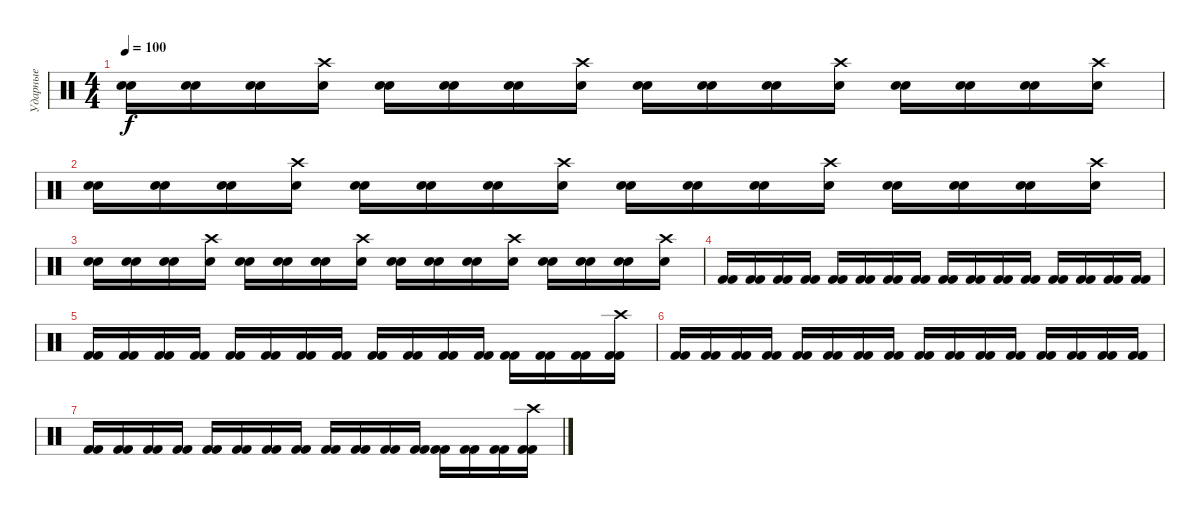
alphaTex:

\track ("Ударные" "Ударные") {instrument percussion}
\staff {score}
\articulation defaults
\ts (4 4)
\tempo 100
\clef neutral
\ks c
("Electric Snare (hit)" "Electric Snare (hit)").16{dy f} ("Electric Snare (hit)" "Electric Snare (hit)").16 ("Electric Snare (hit)" "Electric Snare (hit)").16 ("Electric Snare (hit)" "Crash high (hit)").16 ("Electric Snare (hit)" "Electric Snare (hit)").16 ("Electric Snare (hit)" "Electric Snare (hit)").16 ("Electric Snare (hit)" "Electric Snare (hit)").16 ("Electric Snare (hit)" "Crash high (hit)").16 ("Electric Snare (hit)" "Electric Snare (hit)").16 ("Electric Snare (hit)" "Electric Snare (hit)").16 ("Electric Snare (hit)" "Electric Snare (hit)").16 ("Electric Snare (hit)" "Crash high (hit)").16 ("Electric Snare (hit)" "Electric Snare (hit)").16 ("Electric Snare (hit)" "Electric Snare (hit)").16 ("Electric Snare (hit)" "Electric Snare (hit)").16 ("Electric Snare (hit)" "Crash high (hit)").16 |
("Electric Snare (hit)" "Electric Snare (hit)").16 ("Electric Snare (hit)" "Electric Snare (hit)").16 ("Electric Snare (hit)" "Electric Snare (hit)").16 ("Electric Snare (hit)" "Crash high (hit)").16 ("Electric Snare (hit)" "Electric Snare (hit)").16 ("Electric Snare (hit)" "Electric Snare (hit)").16 ("Electric Snare (hit)" "Electric Snare (hit)").16 ("Electric Snare (hit)" "Crash high (hit)").16 ("Electric Snare (hit)" "Electric Snare (hit)").16 ("Electric Snare (hit)" "Electric Snare (hit)").16 ("Electric Snare (hit)" "Electric Snare (hit)").16 ("Electric Snare (hit)" "Crash high (hit)").16 ("Electric Snare (hit)" "Electric Snare (hit)").16 ("Electric Snare (hit)" "Electric Snare (hit)").16 ("Electric Snare (hit)" "Electric Snare (hit)").16 ("Electric Snare (hit)" "Crash high (hit)").16 |
("Electric Snare (hit)" "Electric Snare (hit)").16 ("Electric Snare (hit)" "Electric Snare (hit)").16 ("Electric Snare (hit)" "Electric Snare (hit)").16 ("Electric Snare (hit)" "Crash high (hit)").16 ("Electric Snare (hit)" "Electric Snare (hit)").16 ("Electric Snare (hit)" "Electric Snare (hit)").16 ("Electric Snare (hit)" "Electric Snare (hit)").16 ("Electric Snare (hit)" "Crash high (hit)").16 ("Electric Snare (hit)" "Electric Snare (hit)").16 ("Electric Snare (hit)" "Electric Snare (hit)").16 ("Electric Snare (hit)" "Electric Snare (hit)").16 ("Electric Snare (hit)" "Crash high (hit)").16 ("Electric Snare (hit)" "Electric Snare (hit)").16 ("Electric Snare (hit)" "Electric Snare (hit)").16 ("Electric Snare (hit)" "Electric Snare (hit)").16 ("Electric Snare (hit)" "Crash high (hit)").16 |
("Kick (hit) 2" "Kick (hit) 2").16 ("Kick (hit) 2" "Kick (hit) 2").16 ("Kick (hit) 2" "Kick (hit) 2").16 ("Kick (hit) 2" "Kick (hit) 2").16 ("Kick (hit) 2" "Kick (hit) 2").16 ("Kick (hit) 2" "Kick (hit) 2").16 ("Kick (hit) 2" "Kick (hit) 2").16 ("Kick (hit) 2" "Kick (hit) 2").16 ("Kick (hit) 2" "Kick (hit) 2").16 ("Kick (hit) 2" "Kick (hit) 2").16 ("Kick (hit) 2" "Kick (hit) 2").16 ("Kick (hit) 2" "Kick (hit) 2").16 ("Kick (hit) 2" "Kick (hit) 2").16 ("Kick (hit) 2" "Kick (hit) 2").16 ("Kick (hit) 2" "Kick (hit) 2").16 ("Kick (hit) 2" "Kick (hit) 2").16 |
("Kick (hit) 2" "Kick (hit) 2").16 ("Kick (hit) 2" "Kick (hit) 2").16 ("Kick (hit) 2" "Kick (hit) 2").16 ("Kick (hit) 2" "Kick (hit) 2").16 ("Kick (hit) 2" "Kick (hit) 2").16 ("Kick (hit) 2" "Kick (hit) 2").16 ("Kick (hit) 2" "Kick (hit) 2").16 ("Kick (hit) 2" "Kick (hit) 2").16 ("Kick (hit) 2" "Kick (hit) 2").16 ("Kick (hit) 2" "Kick (hit) 2").16 ("Kick (hit) 2" "Kick (hit) 2").16 ("Kick (hit) 2" "Kick (hit) 2").16 ("Kick (hit) 2" "Kick (hit) 2").16 ("Kick (hit) 2" "Kick (hit) 2").16 ("Kick (hit) 2" "Kick (hit) 2").16 ("Kick (hit) 2" "Kick (hit) 2" "Crash high (hit)").16 |
("Kick (hit) 2" "Kick (hit) 2").16 ("Kick (hit) 2" "Kick (hit) 2").16 ("Kick (hit) 2" "Kick (hit) 2").16 ("Kick (hit) 2" "Kick (hit) 2").16 ("Kick (hit) 2" "Kick (hit) 2").16 ("Kick (hit) 2" "Kick (hit) 2").16 ("Kick (hit) 2" "Kick (hit) 2").16 ("Kick (hit) 2" "Kick (hit) 2").16 ("Kick (hit) 2" "Kick (hit) 2").16 ("Kick (hit) 2" "Kick (hit) 2").16 ("Kick (hit) 2" "Kick (hit) 2").16 ("Kick (hit) 2" "Kick (hit) 2").16 ("Kick (hit) 2" "Kick (hit) 2").16 ("Kick (hit) 2" "Kick (hit) 2").16 ("Kick (hit) 2" "Kick (hit) 2").16 ("Kick (hit) 2" "Kick (hit) 2").16 |
("Kick (hit) 2" "Kick (hit) 2").16 ("Kick (hit) 2" "Kick (hit) 2").16 ("Kick (hit) 2" "Kick (hit) 2").16 ("Kick (hit) 2" "Kick (hit) 2").16 ("Kick (hit) 2" "Kick (hit) 2").16 ("Kick (hit) 2" "Kick (hit) 2").16 ("Kick (hit) 2" "Kick (hit) 2").16 ("Kick (hit) 2" "Kick (hit) 2").16 ("Kick (hit) 2" "Kick (hit) 2").16 ("Kick (hit) 2" "Kick (hit) 2").16 ("Kick (hit) 2" "Kick (hit) 2").16 ("Kick (hit) 2" "Kick (hit) 2").16 ("Kick (hit) 2" "Kick (hit) 2").16 ("Kick (hit) 2" "Kick (hit) 2").16 ("Kick (hit) 2" "Kick (hit) 2").16 ("Kick (hit) 2" "Kick (hit) 2" "Crash high (hit)").16
